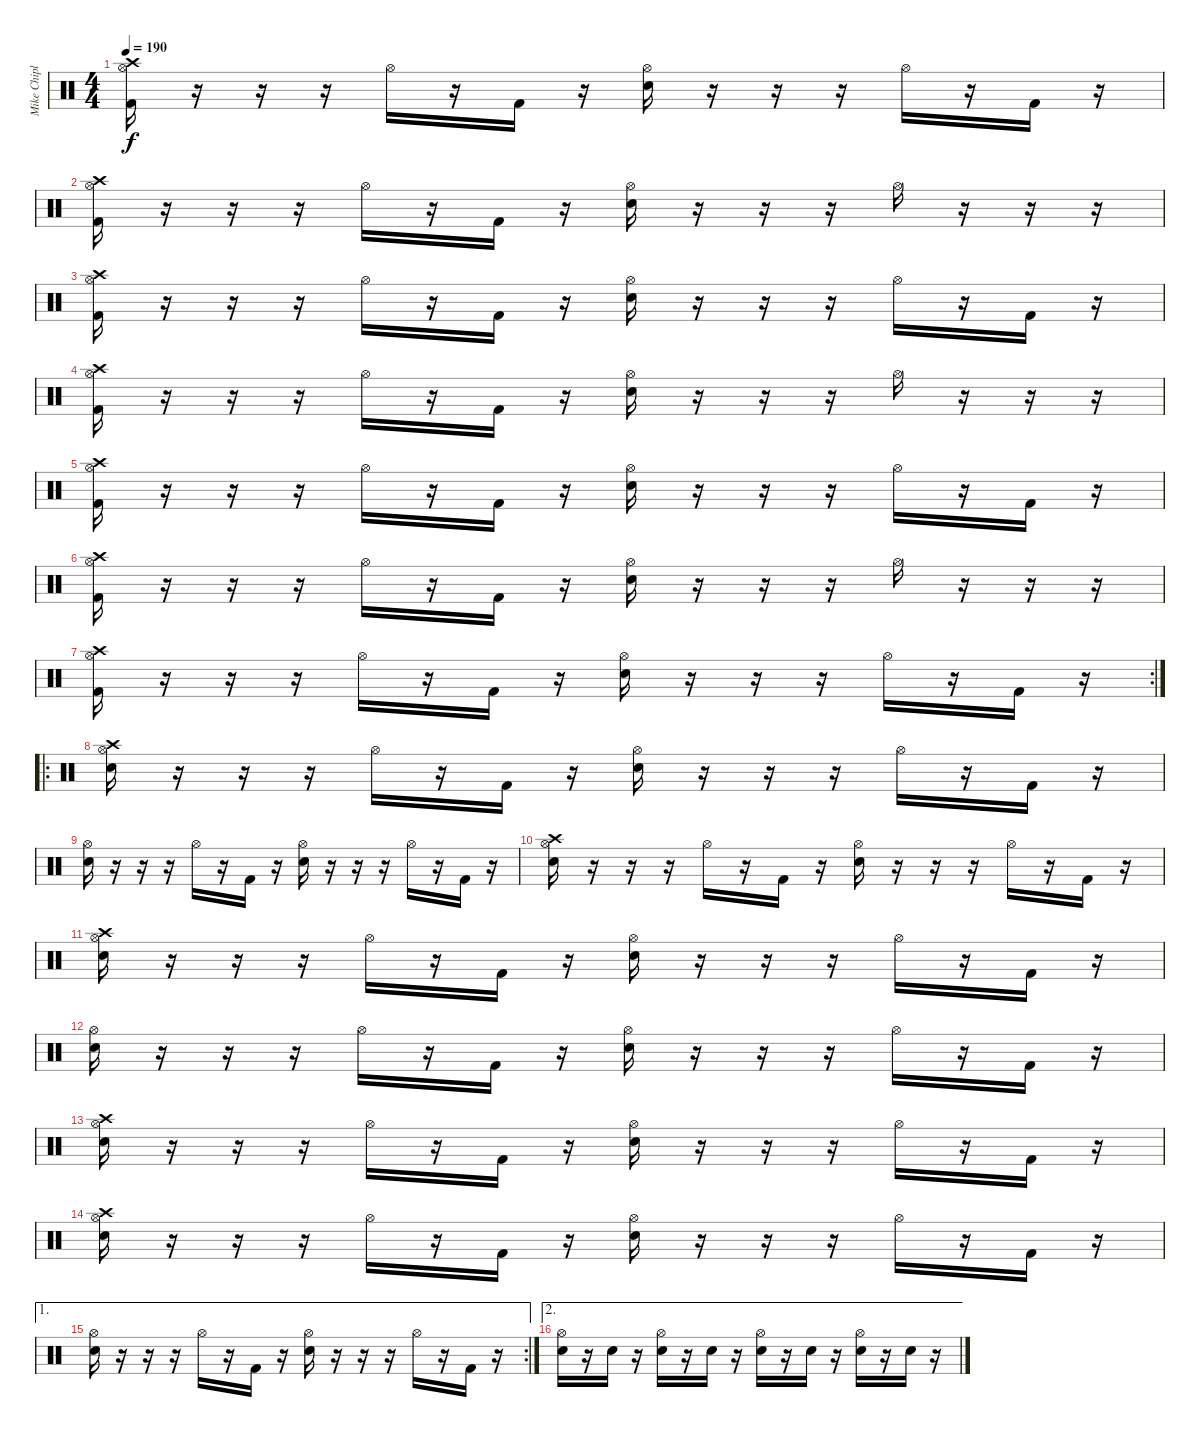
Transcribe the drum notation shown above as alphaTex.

\track ("Mike Chiplin" "Mike Chipl") {instrument percussion}
\staff {score}
\articulation defaults
\ts (4 4)
\tempo 190
\clef neutral
\ks c
("Hi-Hat (open)" "Kick (hit) 2" "Crash high (hit)").16{dy f} r.16 r.16 r.16 "Hi-Hat (open)".16 r.16 "Kick (hit) 2".16 r.16 ("Hi-Hat (open)" "Snare (hit) 2").16 r.16 r.16 r.16 "Hi-Hat (open)".16 r.16 "Kick (hit) 2".16 r.16 |
("Hi-Hat (open)" "Kick (hit) 2" "Crash high (hit)").16 r.16 r.16 r.16 "Hi-Hat (open)".16 r.16 "Kick (hit) 2".16 r.16 ("Hi-Hat (open)" "Snare (hit) 2").16 r.16 r.16 r.16 "Hi-Hat (open)".16 r.16 r.16 r.16 |
("Hi-Hat (open)" "Kick (hit) 2" "Crash high (hit)").16 r.16 r.16 r.16 "Hi-Hat (open)".16 r.16 "Kick (hit) 2".16 r.16 ("Hi-Hat (open)" "Snare (hit) 2").16 r.16 r.16 r.16 "Hi-Hat (open)".16 r.16 "Kick (hit) 2".16 r.16 |
("Hi-Hat (open)" "Kick (hit) 2" "Crash high (hit)").16 r.16 r.16 r.16 "Hi-Hat (open)".16 r.16 "Kick (hit) 2".16 r.16 ("Hi-Hat (open)" "Snare (hit) 2").16 r.16 r.16 r.16 "Hi-Hat (open)".16 r.16 r.16 r.16 |
("Hi-Hat (open)" "Kick (hit) 2" "Crash high (hit)").16 r.16 r.16 r.16 "Hi-Hat (open)".16 r.16 "Kick (hit) 2".16 r.16 ("Hi-Hat (open)" "Snare (hit) 2").16 r.16 r.16 r.16 "Hi-Hat (open)".16 r.16 "Kick (hit) 2".16 r.16 |
("Hi-Hat (open)" "Kick (hit) 2" "Crash high (hit)").16 r.16 r.16 r.16 "Hi-Hat (open)".16 r.16 "Kick (hit) 2".16 r.16 ("Hi-Hat (open)" "Snare (hit) 2").16 r.16 r.16 r.16 "Hi-Hat (open)".16 r.16 r.16 r.16 |
\rc 2
("Hi-Hat (open)" "Kick (hit) 2" "Crash high (hit)").16 r.16 r.16 r.16 "Hi-Hat (open)".16 r.16 "Kick (hit) 2".16 r.16 ("Hi-Hat (open)" "Snare (hit) 2").16 r.16 r.16 r.16 "Hi-Hat (open)".16 r.16 "Kick (hit) 2".16 r.16 |
\ro
("Hi-Hat (open)" "Snare (hit) 2" "Crash high (hit)").16 r.16 r.16 r.16 "Hi-Hat (open)".16 r.16 "Kick (hit) 2".16 r.16 ("Hi-Hat (open)" "Snare (hit) 2").16 r.16 r.16 r.16 "Hi-Hat (open)".16 r.16 "Kick (hit) 2".16 r.16 |
("Hi-Hat (open)" "Snare (hit) 2").16 r.16 r.16 r.16 "Hi-Hat (open)".16 r.16 "Kick (hit) 2".16 r.16 ("Hi-Hat (open)" "Snare (hit) 2").16 r.16 r.16 r.16 "Hi-Hat (open)".16 r.16 "Kick (hit) 2".16 r.16 |
("Hi-Hat (open)" "Snare (hit) 2" "Crash high (hit)").16 r.16 r.16 r.16 "Hi-Hat (open)".16 r.16 "Kick (hit) 2".16 r.16 ("Hi-Hat (open)" "Snare (hit) 2").16 r.16 r.16 r.16 "Hi-Hat (open)".16 r.16 "Kick (hit) 2".16 r.16 |
("Hi-Hat (open)" "Snare (hit) 2" "Crash high (hit)").16 r.16 r.16 r.16 "Hi-Hat (open)".16 r.16 "Kick (hit) 2".16 r.16 ("Hi-Hat (open)" "Snare (hit) 2").16 r.16 r.16 r.16 "Hi-Hat (open)".16 r.16 "Kick (hit) 2".16 r.16 |
("Hi-Hat (open)" "Snare (hit) 2").16 r.16 r.16 r.16 "Hi-Hat (open)".16 r.16 "Kick (hit) 2".16 r.16 ("Hi-Hat (open)" "Snare (hit) 2").16 r.16 r.16 r.16 "Hi-Hat (open)".16 r.16 "Kick (hit) 2".16 r.16 |
("Hi-Hat (open)" "Snare (hit) 2" "Crash high (hit)").16 r.16 r.16 r.16 "Hi-Hat (open)".16 r.16 "Kick (hit) 2".16 r.16 ("Hi-Hat (open)" "Snare (hit) 2").16 r.16 r.16 r.16 "Hi-Hat (open)".16 r.16 "Kick (hit) 2".16 r.16 |
("Hi-Hat (open)" "Snare (hit) 2" "Crash high (hit)").16 r.16 r.16 r.16 "Hi-Hat (open)".16 r.16 "Kick (hit) 2".16 r.16 ("Hi-Hat (open)" "Snare (hit) 2").16 r.16 r.16 r.16 "Hi-Hat (open)".16 r.16 "Kick (hit) 2".16 r.16 |
\ae 1
\rc 2
("Hi-Hat (open)" "Snare (hit) 2").16 r.16 r.16 r.16 "Hi-Hat (open)".16 r.16 "Kick (hit) 2".16 r.16 ("Hi-Hat (open)" "Snare (hit) 2").16 r.16 r.16 r.16 "Hi-Hat (open)".16 r.16 "Kick (hit) 2".16 r.16 |
\ae 2
("Hi-Hat (open)" "Snare (hit) 2").16 r.16 "Snare (hit) 2".16 r.16 ("Hi-Hat (open)" "Snare (hit) 2").16 r.16 "Snare (hit) 2".16 r.16 ("Hi-Hat (open)" "Snare (hit) 2").16 r.16 "Snare (hit) 2".16 r.16 ("Hi-Hat (open)" "Snare (hit) 2").16 r.16 "Snare (hit) 2".16 r.16
